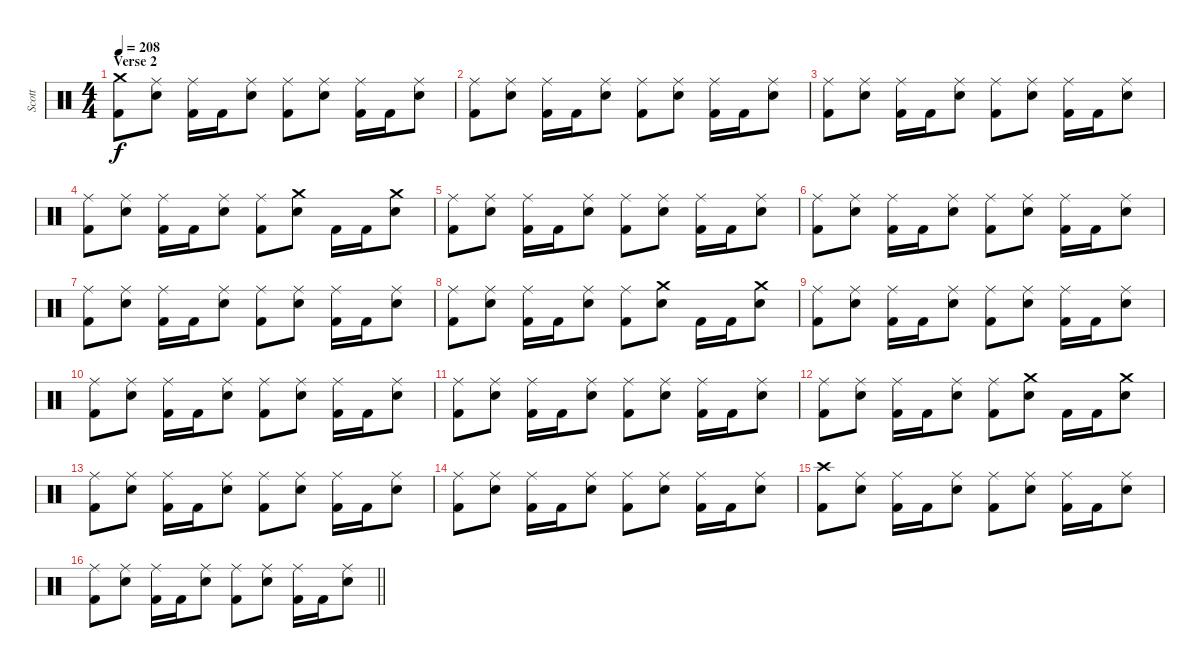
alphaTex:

\track ("Scott" "Scott") {instrument percussion}
\staff {score}
\articulation defaults
\ts (4 4)
\section ("" "Verse 2")
\tempo 208
\clef neutral
\ks c
("Crash medium (hit)" "Kick (hit) 2").8{dy f} ("Ride (middle)" "Electric Snare (hit)").8 ("Ride (middle)" "Kick (hit) 2").16 "Kick (hit) 2".16 ("Ride (middle)" "Electric Snare (hit)").8 ("Ride (middle)" "Kick (hit) 2").8 ("Ride (middle)" "Electric Snare (hit)").8 ("Ride (middle)" "Kick (hit) 2").16 "Kick (hit) 2".16 ("Ride (middle)" "Electric Snare (hit)").8 |
("Ride (middle)" "Kick (hit) 2").8 ("Ride (middle)" "Electric Snare (hit)").8 ("Ride (middle)" "Kick (hit) 2").16 "Kick (hit) 2".16 ("Ride (middle)" "Electric Snare (hit)").8 ("Ride (middle)" "Kick (hit) 2").8 ("Ride (middle)" "Electric Snare (hit)").8 ("Ride (middle)" "Kick (hit) 2").16 "Kick (hit) 2".16 ("Ride (middle)" "Electric Snare (hit)").8 |
("Ride (middle)" "Kick (hit) 2").8 ("Ride (middle)" "Electric Snare (hit)").8 ("Ride (middle)" "Kick (hit) 2").16 "Kick (hit) 2".16 ("Ride (middle)" "Electric Snare (hit)").8 ("Ride (middle)" "Kick (hit) 2").8 ("Ride (middle)" "Electric Snare (hit)").8 ("Ride (middle)" "Kick (hit) 2").16 "Kick (hit) 2".16 ("Ride (middle)" "Electric Snare (hit)").8 |
("Ride (middle)" "Kick (hit) 2").8 ("Ride (middle)" "Electric Snare (hit)").8 ("Ride (middle)" "Kick (hit) 2").16 "Kick (hit) 2".16 ("Ride (middle)" "Electric Snare (hit)").8 ("Ride (middle)" "Kick (hit) 2").8 ("Crash medium (hit)" "Electric Snare (hit)").8 "Kick (hit) 2".16 "Kick (hit) 2".16 ("Crash medium (hit)" "Electric Snare (hit)").8 |
("Ride (middle)" "Kick (hit) 2").8 ("Ride (middle)" "Electric Snare (hit)").8 ("Ride (middle)" "Kick (hit) 2").16 "Kick (hit) 2".16 ("Ride (middle)" "Electric Snare (hit)").8 ("Ride (middle)" "Kick (hit) 2").8 ("Ride (middle)" "Electric Snare (hit)").8 ("Ride (middle)" "Kick (hit) 2").16 "Kick (hit) 2".16 ("Ride (middle)" "Electric Snare (hit)").8 |
("Ride (middle)" "Kick (hit) 2").8 ("Ride (middle)" "Electric Snare (hit)").8 ("Ride (middle)" "Kick (hit) 2").16 "Kick (hit) 2".16 ("Ride (middle)" "Electric Snare (hit)").8 ("Ride (middle)" "Kick (hit) 2").8 ("Ride (middle)" "Electric Snare (hit)").8 ("Ride (middle)" "Kick (hit) 2").16 "Kick (hit) 2".16 ("Ride (middle)" "Electric Snare (hit)").8 |
("Ride (middle)" "Kick (hit) 2").8 ("Ride (middle)" "Electric Snare (hit)").8 ("Ride (middle)" "Kick (hit) 2").16 "Kick (hit) 2".16 ("Ride (middle)" "Electric Snare (hit)").8 ("Ride (middle)" "Kick (hit) 2").8 ("Ride (middle)" "Electric Snare (hit)").8 ("Ride (middle)" "Kick (hit) 2").16 "Kick (hit) 2".16 ("Ride (middle)" "Electric Snare (hit)").8 |
("Ride (middle)" "Kick (hit) 2").8 ("Ride (middle)" "Electric Snare (hit)").8 ("Ride (middle)" "Kick (hit) 2").16 "Kick (hit) 2".16 ("Ride (middle)" "Electric Snare (hit)").8 ("Ride (middle)" "Kick (hit) 2").8 ("Crash medium (hit)" "Electric Snare (hit)").8 "Kick (hit) 2".16 "Kick (hit) 2".16 ("Crash medium (hit)" "Electric Snare (hit)").8 |
("Ride (middle)" "Kick (hit) 2").8 ("Ride (middle)" "Electric Snare (hit)").8 ("Ride (middle)" "Kick (hit) 2").16 "Kick (hit) 2".16 ("Ride (middle)" "Electric Snare (hit)").8 ("Ride (middle)" "Kick (hit) 2").8 ("Ride (middle)" "Electric Snare (hit)").8 ("Ride (middle)" "Kick (hit) 2").16 "Kick (hit) 2".16 ("Ride (middle)" "Electric Snare (hit)").8 |
("Ride (middle)" "Kick (hit) 2").8 ("Ride (middle)" "Electric Snare (hit)").8 ("Ride (middle)" "Kick (hit) 2").16 "Kick (hit) 2".16 ("Ride (middle)" "Electric Snare (hit)").8 ("Ride (middle)" "Kick (hit) 2").8 ("Ride (middle)" "Electric Snare (hit)").8 ("Ride (middle)" "Kick (hit) 2").16 "Kick (hit) 2".16 ("Ride (middle)" "Electric Snare (hit)").8 |
("Ride (middle)" "Kick (hit) 2").8 ("Ride (middle)" "Electric Snare (hit)").8 ("Ride (middle)" "Kick (hit) 2").16 "Kick (hit) 2".16 ("Ride (middle)" "Electric Snare (hit)").8 ("Ride (middle)" "Kick (hit) 2").8 ("Ride (middle)" "Electric Snare (hit)").8 ("Ride (middle)" "Kick (hit) 2").16 "Kick (hit) 2".16 ("Ride (middle)" "Electric Snare (hit)").8 |
("Ride (middle)" "Kick (hit) 2").8 ("Ride (middle)" "Electric Snare (hit)").8 ("Ride (middle)" "Kick (hit) 2").16 "Kick (hit) 2".16 ("Ride (middle)" "Electric Snare (hit)").8 ("Ride (middle)" "Kick (hit) 2").8 ("Crash medium (hit)" "Electric Snare (hit)").8 "Kick (hit) 2".16 "Kick (hit) 2".16 ("Crash medium (hit)" "Electric Snare (hit)").8 |
("Ride (middle)" "Kick (hit) 2").8 ("Ride (middle)" "Electric Snare (hit)").8 ("Ride (middle)" "Kick (hit) 2").16 "Kick (hit) 2".16 ("Ride (middle)" "Electric Snare (hit)").8 ("Ride (middle)" "Kick (hit) 2").8 ("Ride (middle)" "Electric Snare (hit)").8 ("Ride (middle)" "Kick (hit) 2").16 "Kick (hit) 2".16 ("Ride (middle)" "Electric Snare (hit)").8 |
("Ride (middle)" "Kick (hit) 2").8 ("Ride (middle)" "Electric Snare (hit)").8 ("Ride (middle)" "Kick (hit) 2").16 "Kick (hit) 2".16 ("Ride (middle)" "Electric Snare (hit)").8 ("Ride (middle)" "Kick (hit) 2").8 ("Ride (middle)" "Electric Snare (hit)").8 ("Ride (middle)" "Kick (hit) 2").16 "Kick (hit) 2".16 ("Ride (middle)" "Electric Snare (hit)").8 |
("Crash high (hit)" "Kick (hit) 2").8 ("Ride (middle)" "Electric Snare (hit)").8 ("Ride (middle)" "Kick (hit) 2").16 "Kick (hit) 2".16 ("Ride (middle)" "Electric Snare (hit)").8 ("Ride (middle)" "Kick (hit) 2").8 ("Ride (middle)" "Electric Snare (hit)").8 ("Ride (middle)" "Kick (hit) 2").16 "Kick (hit) 2".16 ("Ride (middle)" "Electric Snare (hit)").8 |
\barLineRight lightlight
("Ride (middle)" "Kick (hit) 2").8 ("Ride (middle)" "Electric Snare (hit)").8 ("Ride (middle)" "Kick (hit) 2").16 "Kick (hit) 2".16 ("Ride (middle)" "Electric Snare (hit)").8 ("Ride (middle)" "Kick (hit) 2").8 ("Ride (middle)" "Electric Snare (hit)").8 ("Ride (middle)" "Kick (hit) 2").16 "Kick (hit) 2".16 ("Ride (middle)" "Electric Snare (hit)").8
